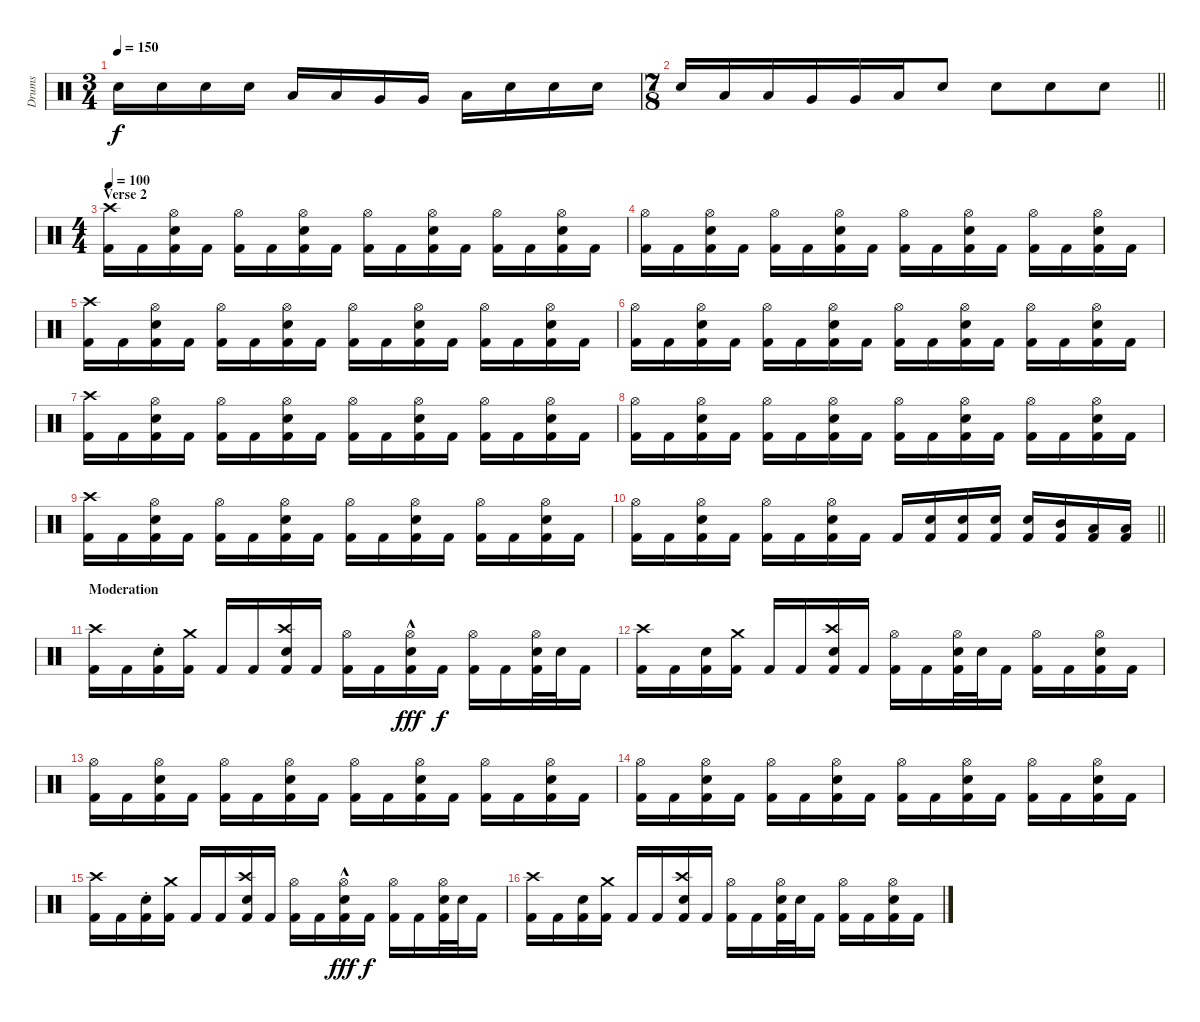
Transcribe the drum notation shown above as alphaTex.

\track ("Drums" "Drums") {instrument percussion}
\staff {score}
\articulation defaults
\ts (3 4)
\tempo 150
\clef neutral
\ks c "Snare (hit) 2".16{dy f volume 16} "Snare (hit) 2".16 "Snare (hit) 2".16 "Snare (hit) 2".16 "Low Floor Tom (hit)".16 "Low Floor Tom (hit)".16 "Very Low Tom (hit)".16 "Very Low Tom (hit)".16 "Low Floor Tom (hit)".16 "Snare (hit) 2".16 "Snare (hit) 2".16 "Snare (hit) 2".16
|
\ts (7 8)
\barLineRight lightlight "Snare (hit) 2".16 "Low Floor Tom (hit)".16 "Low Floor Tom (hit)".16 "Very Low Tom (hit)".16 "Very Low Tom (hit)".16 "Low Floor Tom (hit)".16 "Snare (hit) 2".8 "Snare (hit) 2".8 "Snare (hit) 2".8 "Snare (hit) 2".8
|
\ts (4 4)
\section ("" "Verse 2")
\tempo 100
("Crash high (hit)" "Kick (hit) 2").16 "Kick (hit) 2".16 ("Hi-Hat (open)" "Snare (hit) 2" "Kick (hit) 2").16 "Kick (hit) 2".16 ("Hi-Hat (open)" "Kick (hit) 2").16 "Kick (hit) 2".16 ("Hi-Hat (open)" "Snare (hit) 2" "Kick (hit) 2").16 "Kick (hit) 2".16 ("Hi-Hat (open)" "Kick (hit) 2").16 "Kick (hit) 2".16 ("Hi-Hat (open)" "Snare (hit) 2" "Kick (hit) 2").16 "Kick (hit) 2".16 ("Hi-Hat (open)" "Kick (hit) 2").16 "Kick (hit) 2".16 ("Hi-Hat (open)" "Snare (hit) 2" "Kick (hit) 2").16 "Kick (hit) 2".16 |
("Hi-Hat (open)" "Kick (hit) 2").16 "Kick (hit) 2".16 ("Hi-Hat (open)" "Snare (hit) 2" "Kick (hit) 2").16 "Kick (hit) 2".16 ("Hi-Hat (open)" "Kick (hit) 2").16 "Kick (hit) 2".16 ("Hi-Hat (open)" "Snare (hit) 2" "Kick (hit) 2").16 "Kick (hit) 2".16 ("Hi-Hat (open)" "Kick (hit) 2").16 "Kick (hit) 2".16 ("Hi-Hat (open)" "Snare (hit) 2" "Kick (hit) 2").16 "Kick (hit) 2".16 ("Hi-Hat (open)" "Kick (hit) 2").16 "Kick (hit) 2".16 ("Hi-Hat (open)" "Snare (hit) 2" "Kick (hit) 2").16 "Kick (hit) 2".16 |
("Crash high (hit)" "Kick (hit) 2").16 "Kick (hit) 2".16 ("Hi-Hat (open)" "Snare (hit) 2" "Kick (hit) 2").16 "Kick (hit) 2".16 ("Hi-Hat (open)" "Kick (hit) 2").16 "Kick (hit) 2".16 ("Hi-Hat (open)" "Snare (hit) 2" "Kick (hit) 2").16 "Kick (hit) 2".16 ("Hi-Hat (open)" "Kick (hit) 2").16 "Kick (hit) 2".16 ("Hi-Hat (open)" "Snare (hit) 2" "Kick (hit) 2").16 "Kick (hit) 2".16 ("Hi-Hat (open)" "Kick (hit) 2").16 "Kick (hit) 2".16 ("Hi-Hat (open)" "Snare (hit) 2" "Kick (hit) 2").16 "Kick (hit) 2".16 |
("Hi-Hat (open)" "Kick (hit) 2").16 "Kick (hit) 2".16 ("Hi-Hat (open)" "Snare (hit) 2" "Kick (hit) 2").16 "Kick (hit) 2".16 ("Hi-Hat (open)" "Kick (hit) 2").16 "Kick (hit) 2".16 ("Hi-Hat (open)" "Snare (hit) 2" "Kick (hit) 2").16 "Kick (hit) 2".16 ("Hi-Hat (open)" "Kick (hit) 2").16 "Kick (hit) 2".16 ("Hi-Hat (open)" "Snare (hit) 2" "Kick (hit) 2").16 "Kick (hit) 2".16 ("Hi-Hat (open)" "Kick (hit) 2").16 "Kick (hit) 2".16 ("Hi-Hat (open)" "Snare (hit) 2" "Kick (hit) 2").16 "Kick (hit) 2".16 |
("Crash high (hit)" "Kick (hit) 2").16 "Kick (hit) 2".16 ("Hi-Hat (open)" "Snare (hit) 2" "Kick (hit) 2").16 "Kick (hit) 2".16 ("Hi-Hat (open)" "Kick (hit) 2").16 "Kick (hit) 2".16 ("Hi-Hat (open)" "Snare (hit) 2" "Kick (hit) 2").16 "Kick (hit) 2".16 ("Hi-Hat (open)" "Kick (hit) 2").16 "Kick (hit) 2".16 ("Hi-Hat (open)" "Snare (hit) 2" "Kick (hit) 2").16 "Kick (hit) 2".16 ("Hi-Hat (open)" "Kick (hit) 2").16 "Kick (hit) 2".16 ("Hi-Hat (open)" "Snare (hit) 2" "Kick (hit) 2").16 "Kick (hit) 2".16 |
("Hi-Hat (open)" "Kick (hit) 2").16 "Kick (hit) 2".16 ("Hi-Hat (open)" "Snare (hit) 2" "Kick (hit) 2").16 "Kick (hit) 2".16 ("Hi-Hat (open)" "Kick (hit) 2").16 "Kick (hit) 2".16 ("Hi-Hat (open)" "Snare (hit) 2" "Kick (hit) 2").16 "Kick (hit) 2".16 ("Hi-Hat (open)" "Kick (hit) 2").16 "Kick (hit) 2".16 ("Hi-Hat (open)" "Snare (hit) 2" "Kick (hit) 2").16 "Kick (hit) 2".16 ("Hi-Hat (open)" "Kick (hit) 2").16 "Kick (hit) 2".16 ("Hi-Hat (open)" "Snare (hit) 2" "Kick (hit) 2").16 "Kick (hit) 2".16 |
("Crash high (hit)" "Kick (hit) 2").16 "Kick (hit) 2".16 ("Hi-Hat (open)" "Snare (hit) 2" "Kick (hit) 2").16 "Kick (hit) 2".16 ("Hi-Hat (open)" "Kick (hit) 2").16 "Kick (hit) 2".16 ("Hi-Hat (open)" "Snare (hit) 2" "Kick (hit) 2").16 "Kick (hit) 2".16 ("Hi-Hat (open)" "Kick (hit) 2").16 "Kick (hit) 2".16 ("Hi-Hat (open)" "Snare (hit) 2" "Kick (hit) 2").16 "Kick (hit) 2".16 ("Hi-Hat (open)" "Kick (hit) 2").16 "Kick (hit) 2".16 ("Hi-Hat (open)" "Snare (hit) 2" "Kick (hit) 2").16 "Kick (hit) 2".16 |
\barLineRight lightlight
("Hi-Hat (open)" "Kick (hit) 2").16 "Kick (hit) 2".16 ("Hi-Hat (open)" "Snare (hit) 2" "Kick (hit) 2").16 "Kick (hit) 2".16 ("Hi-Hat (open)" "Kick (hit) 2").16 "Kick (hit) 2".16 ("Hi-Hat (open)" "Snare (hit) 2" "Kick (hit) 2").16 "Kick (hit) 2".16 "Kick (hit) 2".16 ("Snare (hit) 2" "Kick (hit) 2").16 ("Snare (hit) 2" "Kick (hit) 2").16 ("Snare (hit) 2" "Kick (hit) 2").16 ("Snare (hit) 2" "Kick (hit) 2").16 ("Kick (hit) 2" "Mid Tom (hit)").16 ("Kick (hit) 2" "Low Tom (hit)").16 ("Kick (hit) 2" "Low Tom (hit)").16 |
\section ("" "Moderation")
("Crash high (hit)" "Kick (hit) 2").16 "Kick (hit) 2".16 ("Snare (hit) 2"{st} "Kick (hit) 2").16 ("Crash medium (hit)" "Kick (hit) 2").16 "Kick (hit) 2".16 "Kick (hit) 2".16 ("Crash high (hit)" "Snare (hit) 2" "Kick (hit) 2").16 "Kick (hit) 2".16 ("Hi-Hat (open)" "Kick (hit) 2").16 "Kick (hit) 2".16 ("Hi-Hat (open)" "Snare (hit) 2"{hac} "Kick (hit) 2").16{dy fff} "Kick (hit) 2".16{dy f} ("Hi-Hat (open)" "Kick (hit) 2").16 "Kick (hit) 2".16 ("Hi-Hat (open)" "Snare (hit) 2" "Kick (hit) 2").32 "Snare (hit) 2".32 "Kick (hit) 2".16 |
("Crash high (hit)" "Kick (hit) 2").16 "Kick (hit) 2".16 ("Snare (hit) 2" "Kick (hit) 2").16 ("Crash medium (hit)" "Kick (hit) 2").16 "Kick (hit) 2".16 "Kick (hit) 2".16 ("Crash high (hit)" "Snare (hit) 2" "Kick (hit) 2").16 "Kick (hit) 2".16 ("Hi-Hat (open)" "Kick (hit) 2").16 "Kick (hit) 2".16 ("Hi-Hat (open)" "Snare (hit) 2" "Kick (hit) 2").32 "Snare (hit) 2".32 "Kick (hit) 2".16 ("Hi-Hat (open)" "Kick (hit) 2").16 "Kick (hit) 2".16 ("Hi-Hat (open)" "Snare (hit) 2" "Kick (hit) 2").16 "Kick (hit) 2".16 |
("Hi-Hat (open)" "Kick (hit) 2").16 "Kick (hit) 2".16 ("Hi-Hat (open)" "Snare (hit) 2" "Kick (hit) 2").16 "Kick (hit) 2".16 ("Hi-Hat (open)" "Kick (hit) 2").16 "Kick (hit) 2".16 ("Hi-Hat (open)" "Snare (hit) 2" "Kick (hit) 2").16 "Kick (hit) 2".16 ("Hi-Hat (open)" "Kick (hit) 2").16 "Kick (hit) 2".16 ("Hi-Hat (open)" "Snare (hit) 2" "Kick (hit) 2").16 "Kick (hit) 2".16 ("Hi-Hat (open)" "Kick (hit) 2").16 "Kick (hit) 2".16 ("Hi-Hat (open)" "Snare (hit) 2" "Kick (hit) 2").16 "Kick (hit) 2".16 |
("Hi-Hat (open)" "Kick (hit) 2").16 "Kick (hit) 2".16 ("Hi-Hat (open)" "Snare (hit) 2" "Kick (hit) 2").16 "Kick (hit) 2".16 ("Hi-Hat (open)" "Kick (hit) 2").16 "Kick (hit) 2".16 ("Hi-Hat (open)" "Snare (hit) 2" "Kick (hit) 2").16 "Kick (hit) 2".16 ("Hi-Hat (open)" "Kick (hit) 2").16 "Kick (hit) 2".16 ("Hi-Hat (open)" "Snare (hit) 2" "Kick (hit) 2").16 "Kick (hit) 2".16 ("Hi-Hat (open)" "Kick (hit) 2").16 "Kick (hit) 2".16 ("Hi-Hat (open)" "Snare (hit) 2" "Kick (hit) 2").16 "Kick (hit) 2".16 |
("Crash high (hit)" "Kick (hit) 2").16 "Kick (hit) 2".16 ("Snare (hit) 2"{st} "Kick (hit) 2").16 ("Crash medium (hit)" "Kick (hit) 2").16 "Kick (hit) 2".16 "Kick (hit) 2".16 ("Crash high (hit)" "Snare (hit) 2" "Kick (hit) 2").16 "Kick (hit) 2".16 ("Hi-Hat (open)" "Kick (hit) 2").16 "Kick (hit) 2".16 ("Hi-Hat (open)" "Snare (hit) 2"{hac} "Kick (hit) 2").16{dy fff} "Kick (hit) 2".16{dy f} ("Hi-Hat (open)" "Kick (hit) 2").16 "Kick (hit) 2".16 ("Hi-Hat (open)" "Snare (hit) 2" "Kick (hit) 2").32 "Snare (hit) 2".32 "Kick (hit) 2".16 |
("Crash high (hit)" "Kick (hit) 2").16 "Kick (hit) 2".16 ("Snare (hit) 2" "Kick (hit) 2").16 ("Crash medium (hit)" "Kick (hit) 2").16 "Kick (hit) 2".16 "Kick (hit) 2".16 ("Crash high (hit)" "Snare (hit) 2" "Kick (hit) 2").16 "Kick (hit) 2".16 ("Hi-Hat (open)" "Kick (hit) 2").16 "Kick (hit) 2".16 ("Hi-Hat (open)" "Snare (hit) 2" "Kick (hit) 2").32 "Snare (hit) 2".32 "Kick (hit) 2".16 ("Hi-Hat (open)" "Kick (hit) 2").16 "Kick (hit) 2".16 ("Hi-Hat (open)" "Snare (hit) 2" "Kick (hit) 2").16 "Kick (hit) 2".16
